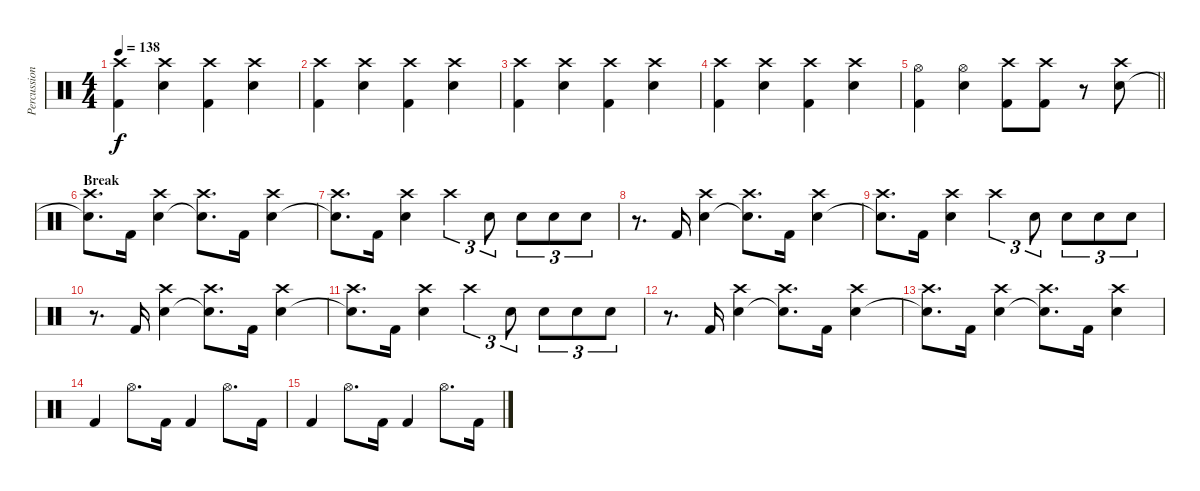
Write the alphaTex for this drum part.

\track ("Percussions Karim" "Percussion") {instrument percussion}
\staff {score}
\articulation defaults
\ts (4 4)
\tempo 138
\clef neutral
\ks c
("Crash high (hit)" "Kick (hit) 2").4{dy f} ("Crash high (hit)" "Snare (hit) 2").4 ("Crash high (hit)" "Kick (hit) 2").4 ("Crash high (hit)" "Snare (hit) 2").4 |
("Crash high (hit)" "Kick (hit) 2").4 ("Crash high (hit)" "Snare (hit) 2").4 ("Crash high (hit)" "Kick (hit) 2").4 ("Crash high (hit)" "Snare (hit) 2").4 |
("Crash high (hit)" "Kick (hit) 2").4 ("Crash high (hit)" "Snare (hit) 2").4 ("Crash high (hit)" "Kick (hit) 2").4 ("Crash high (hit)" "Snare (hit) 2").4 |
("Crash high (hit)" "Kick (hit) 2").4 ("Crash high (hit)" "Snare (hit) 2").4 ("Crash high (hit)" "Kick (hit) 2").4 ("Crash high (hit)" "Snare (hit) 2").4 |
\barLineRight lightlight
("Hi-Hat (open)" "Kick (hit) 2").4 ("Hi-Hat (open)" "Snare (hit) 2").4 ("Crash high (hit)" "Kick (hit) 2").8 ("Crash high (hit)" "Kick (hit) 2").8 r.8 ("Crash high (hit)" "Electric Snare (hit)").8 |
\section ("" "Break")
("Crash high (hit)" "Electric Snare (hit)"{t}).8{d} "Kick (hit) 2".16 ("Crash high (hit)" "Electric Snare (hit)").4 ("Crash high (hit)" "Electric Snare (hit)"{t}).8{d} "Kick (hit) 2".16 ("Crash high (hit)" "Electric Snare (hit)").4 |
("Crash high (hit)" "Electric Snare (hit)"{t}).8{d} "Kick (hit) 2".16 ("Crash high (hit)" "Electric Snare (hit)").4 "Crash high (hit)".4{tu (3 2)} "Electric Snare (hit)".8{tu (3 2)} "Electric Snare (hit)".8{tu (3 2)} "Electric Snare (hit)".8{tu (3 2)} "Electric Snare (hit)".8{tu (3 2)} |
r.8{d} "Kick (hit) 2".16 ("Crash high (hit)" "Electric Snare (hit)").4 ("Crash high (hit)" "Electric Snare (hit)"{t}).8{d} "Kick (hit) 2".16 ("Crash high (hit)" "Electric Snare (hit)").4 |
("Crash high (hit)" "Electric Snare (hit)"{t}).8{d} "Kick (hit) 2".16 ("Crash high (hit)" "Electric Snare (hit)").4 "Crash high (hit)".4{tu (3 2)} "Electric Snare (hit)".8{tu (3 2)} "Electric Snare (hit)".8{tu (3 2)} "Electric Snare (hit)".8{tu (3 2)} "Electric Snare (hit)".8{tu (3 2)} |
r.8{d} "Kick (hit) 2".16 ("Crash high (hit)" "Electric Snare (hit)").4 ("Crash high (hit)" "Electric Snare (hit)"{t}).8{d} "Kick (hit) 2".16 ("Crash high (hit)" "Electric Snare (hit)").4 |
("Crash high (hit)" "Electric Snare (hit)"{t}).8{d} "Kick (hit) 2".16 ("Crash high (hit)" "Electric Snare (hit)").4 "Crash high (hit)".4{tu (3 2)} "Electric Snare (hit)".8{tu (3 2)} "Electric Snare (hit)".8{tu (3 2)} "Electric Snare (hit)".8{tu (3 2)} "Electric Snare (hit)".8{tu (3 2)} |
r.8{d} "Kick (hit) 2".16 ("Crash high (hit)" "Electric Snare (hit)").4 ("Crash high (hit)" "Electric Snare (hit)"{t}).8{d} "Kick (hit) 2".16 ("Crash high (hit)" "Electric Snare (hit)").4 |
("Crash high (hit)" "Electric Snare (hit)"{t}).8{d} "Kick (hit) 2".16 ("Crash high (hit)" "Electric Snare (hit)").4 ("Crash high (hit)" "Electric Snare (hit)"{t}).8{d} "Kick (hit) 2".16 ("Crash high (hit)" "Electric Snare (hit)").4 |
"Kick (hit) 2".4 "Hi-Hat (open)".8{d} "Kick (hit) 2".16 "Kick (hit) 2".4 "Hi-Hat (open)".8{d} "Kick (hit) 2".16 |
"Kick (hit) 2".4 "Hi-Hat (open)".8{d} "Kick (hit) 2".16 "Kick (hit) 2".4 "Hi-Hat (open)".8{d} "Kick (hit) 2".16
